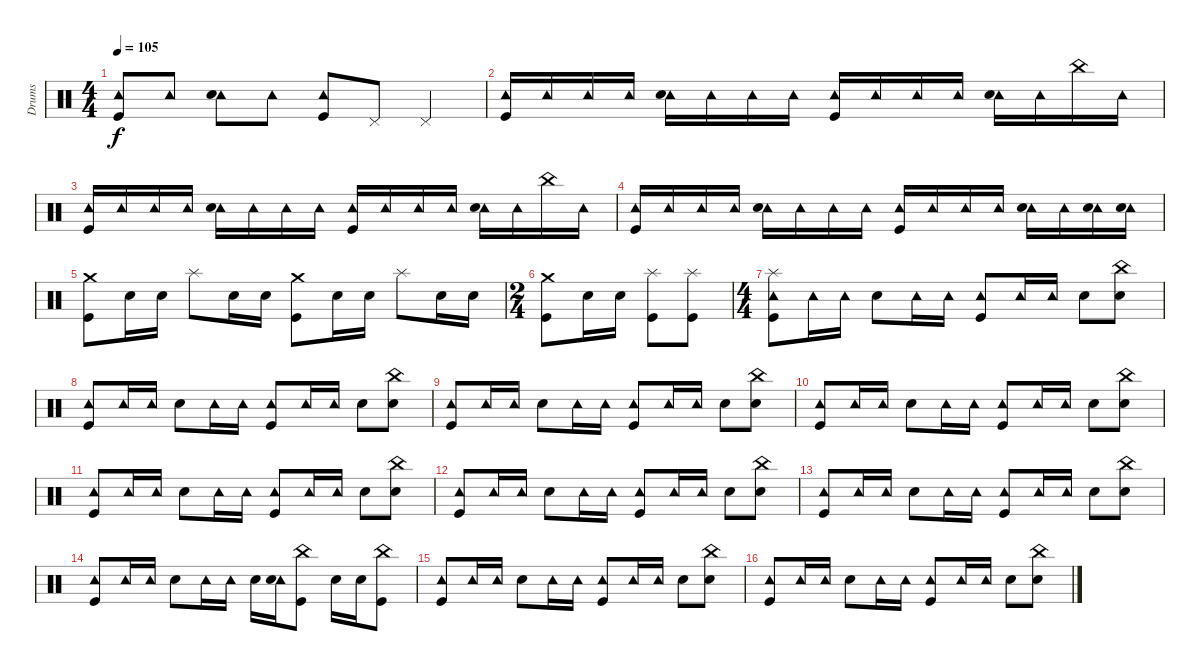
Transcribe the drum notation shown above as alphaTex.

\track ("Drums" "Drums") {instrument percussion}
\staff {score}
\articulation defaults
\ts (4 4)
\tempo 105
\clef neutral
\ks c
("Tambourine (hit)" "Kick (hit)").8{dy f} "Tambourine (hit)".8 ("Tambourine (hit)" "Snare (hit) 2").8 "Tambourine (hit)".8 ("Tambourine (hit)" "Kick (hit)").8 "Pedal Hi-Hat (hit)".8 "Pedal Hi-Hat (hit)".4 |
("Tambourine (hit)" "Kick (hit)").16 "Tambourine (hit)".16 "Tambourine (hit)".16 "Tambourine (hit)".16 ("Tambourine (hit)" "Snare (hit) 2").16 "Tambourine (hit)".16 "Tambourine (hit)".16 "Tambourine (hit)".16 ("Tambourine (hit)" "Kick (hit)").16 "Tambourine (hit)".16 "Tambourine (hit)".16 "Tambourine (hit)".16 ("Tambourine (hit)" "Snare (hit) 2").16 "Tambourine (hit)".16 "China (hit)".16 "Tambourine (hit)".16 |
("Tambourine (hit)" "Kick (hit)").16 "Tambourine (hit)".16 "Tambourine (hit)".16 "Tambourine (hit)".16 ("Tambourine (hit)" "Snare (hit) 2").16 "Tambourine (hit)".16 "Tambourine (hit)".16 "Tambourine (hit)".16 ("Tambourine (hit)" "Kick (hit)").16 "Tambourine (hit)".16 "Tambourine (hit)".16 "Tambourine (hit)".16 ("Tambourine (hit)" "Snare (hit) 2").16 "Tambourine (hit)".16 "China (hit)".16 "Tambourine (hit)".16 |
("Tambourine (hit)" "Kick (hit)").16 "Tambourine (hit)".16 "Tambourine (hit)".16 "Tambourine (hit)".16 ("Tambourine (hit)" "Snare (hit) 2").16 "Tambourine (hit)".16 "Tambourine (hit)".16 "Tambourine (hit)".16 ("Tambourine (hit)" "Kick (hit)").16 "Tambourine (hit)".16 "Tambourine (hit)".16 "Tambourine (hit)".16 ("Tambourine (hit)" "Snare (hit) 2").16 "Tambourine (hit)".16 ("Tambourine (hit)" "Snare (hit) 2").16 ("Tambourine (hit)" "Snare (hit) 2").16 |
("Kick (hit)" "Crash medium (hit)").8 "Snare (hit) 2".16 "Snare (hit) 2".16 "Splash (hit)".8 "Snare (hit) 2".16 "Snare (hit) 2".16 ("Kick (hit)" "Crash medium (hit)").8 "Snare (hit) 2".16 "Snare (hit) 2".16 "Splash (hit)".8 "Snare (hit) 2".16 "Snare (hit) 2".16 |
\ts (2 4)
("Kick (hit)" "Crash medium (hit)").8 "Snare (hit) 2".16 "Snare (hit) 2".16 ("Kick (hit)" "Splash (hit)").8 ("Kick (hit)" "Splash (hit)").8 |
\ts (4 4)
("Tambourine (hit)" "Kick (hit)" "Splash (hit)").8 "Tambourine (hit)".16 "Tambourine (hit)".16 "Snare (hit) 2".8 "Tambourine (hit)".16 "Tambourine (hit)".16 ("Tambourine (hit)" "Kick (hit)").8 "Tambourine (hit)".16 "Tambourine (hit)".16 "Snare (hit) 2".8 ("China (hit)" "Snare (hit) 2").8 |
("Tambourine (hit)" "Kick (hit)").8 "Tambourine (hit)".16 "Tambourine (hit)".16 "Snare (hit) 2".8 "Tambourine (hit)".16 "Tambourine (hit)".16 ("Tambourine (hit)" "Kick (hit)").8 "Tambourine (hit)".16 "Tambourine (hit)".16 "Snare (hit) 2".8 ("China (hit)" "Snare (hit) 2").8 |
("Tambourine (hit)" "Kick (hit)").8 "Tambourine (hit)".16 "Tambourine (hit)".16 "Snare (hit) 2".8 "Tambourine (hit)".16 "Tambourine (hit)".16 ("Tambourine (hit)" "Kick (hit)").8 "Tambourine (hit)".16 "Tambourine (hit)".16 "Snare (hit) 2".8 ("China (hit)" "Snare (hit) 2").8 |
("Tambourine (hit)" "Kick (hit)").8 "Tambourine (hit)".16 "Tambourine (hit)".16 "Snare (hit) 2".8 "Tambourine (hit)".16 "Tambourine (hit)".16 ("Tambourine (hit)" "Kick (hit)").8 "Tambourine (hit)".16 "Tambourine (hit)".16 "Snare (hit) 2".8 ("China (hit)" "Snare (hit) 2").8 |
("Tambourine (hit)" "Kick (hit)").8 "Tambourine (hit)".16 "Tambourine (hit)".16 "Snare (hit) 2".8 "Tambourine (hit)".16 "Tambourine (hit)".16 ("Tambourine (hit)" "Kick (hit)").8 "Tambourine (hit)".16 "Tambourine (hit)".16 "Snare (hit) 2".8 ("China (hit)" "Snare (hit) 2").8 |
("Tambourine (hit)" "Kick (hit)").8 "Tambourine (hit)".16 "Tambourine (hit)".16 "Snare (hit) 2".8 "Tambourine (hit)".16 "Tambourine (hit)".16 ("Tambourine (hit)" "Kick (hit)").8 "Tambourine (hit)".16 "Tambourine (hit)".16 "Snare (hit) 2".8 ("China (hit)" "Snare (hit) 2").8 |
("Tambourine (hit)" "Kick (hit)").8 "Tambourine (hit)".16 "Tambourine (hit)".16 "Snare (hit) 2".8 "Tambourine (hit)".16 "Tambourine (hit)".16 ("Tambourine (hit)" "Kick (hit)").8 "Tambourine (hit)".16 "Tambourine (hit)".16 "Snare (hit) 2".8 ("China (hit)" "Snare (hit) 2").8 |
("Tambourine (hit)" "Kick (hit)").8 "Tambourine (hit)".16 "Tambourine (hit)".16 "Snare (hit) 2".8 "Tambourine (hit)".16 "Tambourine (hit)".16 "Snare (hit) 2".16 ("Tambourine (hit)" "Snare (hit) 2").16 ("China (hit)" "Kick (hit)").8 "Snare (hit) 2".16 "Snare (hit) 2".16 ("China (hit)" "Kick (hit)").8 |
("Tambourine (hit)" "Kick (hit)").8 "Tambourine (hit)".16 "Tambourine (hit)".16 "Snare (hit) 2".8 "Tambourine (hit)".16 "Tambourine (hit)".16 ("Tambourine (hit)" "Kick (hit)").8 "Tambourine (hit)".16 "Tambourine (hit)".16 "Snare (hit) 2".8 ("China (hit)" "Snare (hit) 2").8 |
("Tambourine (hit)" "Kick (hit)").8 "Tambourine (hit)".16 "Tambourine (hit)".16 "Snare (hit) 2".8 "Tambourine (hit)".16 "Tambourine (hit)".16 ("Tambourine (hit)" "Kick (hit)").8 "Tambourine (hit)".16 "Tambourine (hit)".16 "Snare (hit) 2".8 ("China (hit)" "Snare (hit) 2").8
